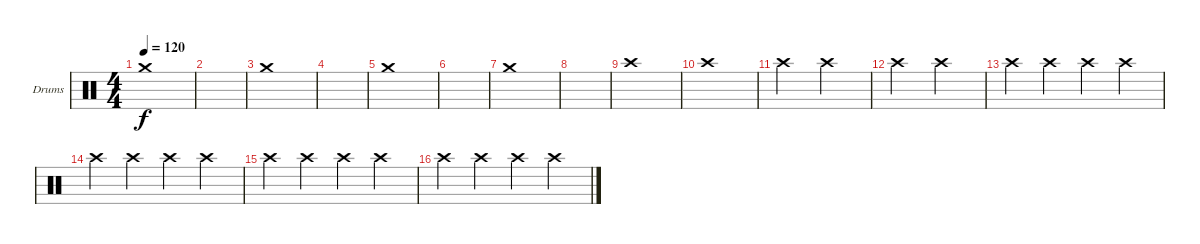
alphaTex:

\defaultSystemsLayout 4
\bracketExtendMode groupsimilarinstruments
\firstSystemTrackNameOrientation horizontal
\otherSystemsTrackNameOrientation horizontal
\track ("Drumkit" "Drums") {instrument percussion}
\staff {score}
\articulation defaults
\ts (4 4)
\tempo 120
\clef neutral
\scale
0.474178
\ks c "Crash medium (hit)".1{dy f}
|
\scale
0.262911 |
\scale
0.262911 "Crash medium (hit)".1 |
|
"Crash medium (hit)".1 |
|
"Crash medium (hit)".1 |
|
"Crash high (hit)".1 |
"Crash high (hit)".1 |
"Crash high (hit)".2 "Crash high (hit)".2 |
"Crash high (hit)".2 "Crash high (hit)".2 |
"Crash high (hit)".4 "Crash high (hit)".4 "Crash high (hit)".4 "Crash high (hit)".4 |
"Crash high (hit)".4 "Crash high (hit)".4 "Crash high (hit)".4 "Crash high (hit)".4 |
"Crash high (hit)".4 "Crash high (hit)".4 "Crash high (hit)".4 "Crash high (hit)".4 |
"Crash high (hit)".4 "Crash high (hit)".4 "Crash high (hit)".4 "Crash high (hit)".4
